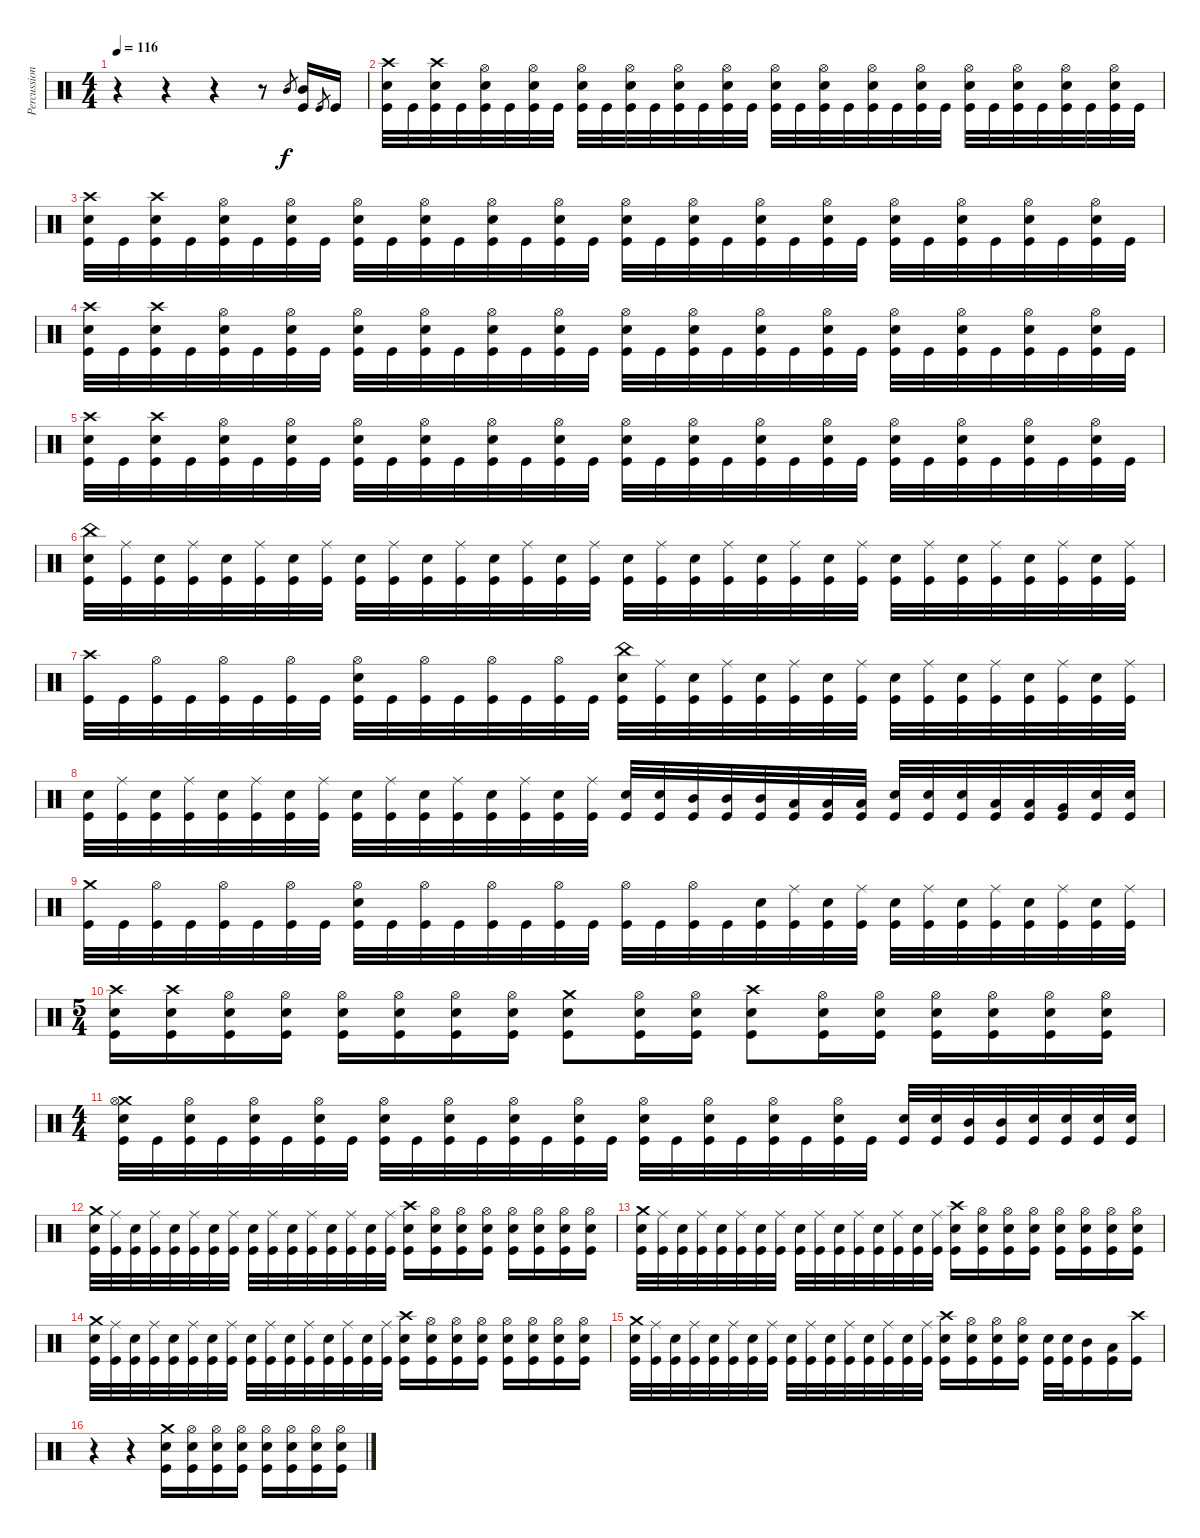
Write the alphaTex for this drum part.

\track ("Percussion" "Percussion") {instrument percussion}
\staff {score}
\articulation defaults
\ts (4 4)
\tempo 116
\clef neutral
\ks c
r.4{dy f} r.4 r.4 r.8 "Mid Tom (hit)".8{gr} ("Mid Tom (hit)" "Kick (hit)").16 "Kick (hit)".8{gr} "Kick (hit)".16 |
("Crash high (hit)" "Electric Snare (hit)" "Kick (hit)").32 "Kick (hit)".32 ("Crash high (hit)" "Electric Snare (hit)" "Kick (hit)").32 "Kick (hit)".32 ("Hi-Hat (open)" "Electric Snare (hit)" "Kick (hit)").32 "Kick (hit)".32 ("Hi-Hat (open)" "Electric Snare (hit)" "Kick (hit)").32 "Kick (hit)".32 ("Hi-Hat (open)" "Electric Snare (hit)" "Kick (hit)").32 "Kick (hit)".32 ("Hi-Hat (open)" "Electric Snare (hit)" "Kick (hit)").32 "Kick (hit)".32 ("Hi-Hat (open)" "Electric Snare (hit)" "Kick (hit)").32 "Kick (hit)".32 ("Hi-Hat (open)" "Electric Snare (hit)" "Kick (hit)").32 "Kick (hit)".32 ("Hi-Hat (open)" "Electric Snare (hit)" "Kick (hit)").32 "Kick (hit)".32 ("Hi-Hat (open)" "Electric Snare (hit)" "Kick (hit)").32 "Kick (hit)".32 ("Hi-Hat (open)" "Electric Snare (hit)" "Kick (hit)").32 "Kick (hit)".32 ("Hi-Hat (open)" "Electric Snare (hit)" "Kick (hit)").32 "Kick (hit)".32 ("Hi-Hat (open)" "Electric Snare (hit)" "Kick (hit)").32 "Kick (hit)".32 ("Hi-Hat (open)" "Electric Snare (hit)" "Kick (hit)").32 "Kick (hit)".32 ("Hi-Hat (open)" "Electric Snare (hit)" "Kick (hit)").32 "Kick (hit)".32 ("Hi-Hat (open)" "Electric Snare (hit)" "Kick (hit)").32 "Kick (hit)".32 |
("Crash high (hit)" "Electric Snare (hit)" "Kick (hit)").32 "Kick (hit)".32 ("Crash high (hit)" "Electric Snare (hit)" "Kick (hit)").32 "Kick (hit)".32 ("Hi-Hat (open)" "Electric Snare (hit)" "Kick (hit)").32 "Kick (hit)".32 ("Hi-Hat (open)" "Electric Snare (hit)" "Kick (hit)").32 "Kick (hit)".32 ("Hi-Hat (open)" "Electric Snare (hit)" "Kick (hit)").32 "Kick (hit)".32 ("Hi-Hat (open)" "Electric Snare (hit)" "Kick (hit)").32 "Kick (hit)".32 ("Hi-Hat (open)" "Electric Snare (hit)" "Kick (hit)").32 "Kick (hit)".32 ("Hi-Hat (open)" "Electric Snare (hit)" "Kick (hit)").32 "Kick (hit)".32 ("Hi-Hat (open)" "Electric Snare (hit)" "Kick (hit)").32 "Kick (hit)".32 ("Hi-Hat (open)" "Electric Snare (hit)" "Kick (hit)").32 "Kick (hit)".32 ("Hi-Hat (open)" "Electric Snare (hit)" "Kick (hit)").32 "Kick (hit)".32 ("Hi-Hat (open)" "Electric Snare (hit)" "Kick (hit)").32 "Kick (hit)".32 ("Hi-Hat (open)" "Electric Snare (hit)" "Kick (hit)").32 "Kick (hit)".32 ("Hi-Hat (open)" "Electric Snare (hit)" "Kick (hit)").32 "Kick (hit)".32 ("Hi-Hat (open)" "Electric Snare (hit)" "Kick (hit)").32 "Kick (hit)".32 ("Hi-Hat (open)" "Electric Snare (hit)" "Kick (hit)").32 "Kick (hit)".32 |
("Crash high (hit)" "Electric Snare (hit)" "Kick (hit)").32 "Kick (hit)".32 ("Crash high (hit)" "Electric Snare (hit)" "Kick (hit)").32 "Kick (hit)".32 ("Hi-Hat (open)" "Electric Snare (hit)" "Kick (hit)").32 "Kick (hit)".32 ("Hi-Hat (open)" "Electric Snare (hit)" "Kick (hit)").32 "Kick (hit)".32 ("Hi-Hat (open)" "Electric Snare (hit)" "Kick (hit)").32 "Kick (hit)".32 ("Hi-Hat (open)" "Electric Snare (hit)" "Kick (hit)").32 "Kick (hit)".32 ("Hi-Hat (open)" "Electric Snare (hit)" "Kick (hit)").32 "Kick (hit)".32 ("Hi-Hat (open)" "Electric Snare (hit)" "Kick (hit)").32 "Kick (hit)".32 ("Hi-Hat (open)" "Electric Snare (hit)" "Kick (hit)").32 "Kick (hit)".32 ("Hi-Hat (open)" "Electric Snare (hit)" "Kick (hit)").32 "Kick (hit)".32 ("Hi-Hat (open)" "Electric Snare (hit)" "Kick (hit)").32 "Kick (hit)".32 ("Hi-Hat (open)" "Electric Snare (hit)" "Kick (hit)").32 "Kick (hit)".32 ("Hi-Hat (open)" "Electric Snare (hit)" "Kick (hit)").32 "Kick (hit)".32 ("Hi-Hat (open)" "Electric Snare (hit)" "Kick (hit)").32 "Kick (hit)".32 ("Hi-Hat (open)" "Electric Snare (hit)" "Kick (hit)").32 "Kick (hit)".32 ("Hi-Hat (open)" "Electric Snare (hit)" "Kick (hit)").32 "Kick (hit)".32 |
("Crash high (hit)" "Electric Snare (hit)" "Kick (hit)").32 "Kick (hit)".32 ("Crash high (hit)" "Electric Snare (hit)" "Kick (hit)").32 "Kick (hit)".32 ("Hi-Hat (open)" "Electric Snare (hit)" "Kick (hit)").32 "Kick (hit)".32 ("Hi-Hat (open)" "Electric Snare (hit)" "Kick (hit)").32 "Kick (hit)".32 ("Hi-Hat (open)" "Electric Snare (hit)" "Kick (hit)").32 "Kick (hit)".32 ("Hi-Hat (open)" "Electric Snare (hit)" "Kick (hit)").32 "Kick (hit)".32 ("Hi-Hat (open)" "Electric Snare (hit)" "Kick (hit)").32 "Kick (hit)".32 ("Hi-Hat (open)" "Electric Snare (hit)" "Kick (hit)").32 "Kick (hit)".32 ("Hi-Hat (open)" "Electric Snare (hit)" "Kick (hit)").32 "Kick (hit)".32 ("Hi-Hat (open)" "Electric Snare (hit)" "Kick (hit)").32 "Kick (hit)".32 ("Hi-Hat (open)" "Electric Snare (hit)" "Kick (hit)").32 "Kick (hit)".32 ("Hi-Hat (open)" "Electric Snare (hit)" "Kick (hit)").32 "Kick (hit)".32 ("Hi-Hat (open)" "Electric Snare (hit)" "Kick (hit)").32 "Kick (hit)".32 ("Hi-Hat (open)" "Electric Snare (hit)" "Kick (hit)").32 "Kick (hit)".32 ("Hi-Hat (open)" "Electric Snare (hit)" "Kick (hit)").32 "Kick (hit)".32 ("Hi-Hat (open)" "Electric Snare (hit)" "Kick (hit)").32 "Kick (hit)".32 |
("China (hit)" "Electric Snare (hit)" "Kick (hit)").32 ("Ride (middle)" "Kick (hit)").32 ("Electric Snare (hit)" "Kick (hit)").32 ("Ride (middle)" "Kick (hit)").32 ("Electric Snare (hit)" "Kick (hit)").32 ("Ride (middle)" "Kick (hit)").32 ("Electric Snare (hit)" "Kick (hit)").32 ("Ride (middle)" "Kick (hit)").32 ("Electric Snare (hit)" "Kick (hit)").32 ("Ride (middle)" "Kick (hit)").32 ("Electric Snare (hit)" "Kick (hit)").32 ("Ride (middle)" "Kick (hit)").32 ("Electric Snare (hit)" "Kick (hit)").32 ("Ride (middle)" "Kick (hit)").32 ("Electric Snare (hit)" "Kick (hit)").32 ("Ride (middle)" "Kick (hit)").32 ("Electric Snare (hit)" "Kick (hit)").32 ("Ride (middle)" "Kick (hit)").32 ("Electric Snare (hit)" "Kick (hit)").32 ("Ride (middle)" "Kick (hit)").32 ("Electric Snare (hit)" "Kick (hit)").32 ("Ride (middle)" "Kick (hit)").32 ("Electric Snare (hit)" "Kick (hit)").32 ("Ride (middle)" "Kick (hit)").32 ("Electric Snare (hit)" "Kick (hit)").32 ("Ride (middle)" "Kick (hit)").32 ("Electric Snare (hit)" "Kick (hit)").32 ("Ride (middle)" "Kick (hit)").32 ("Electric Snare (hit)" "Kick (hit)").32 ("Ride (middle)" "Kick (hit)").32 ("Electric Snare (hit)" "Kick (hit)").32 ("Ride (middle)" "Kick (hit)").32 |
("Crash high (hit)" "Kick (hit)").32 "Kick (hit)".32 ("Hi-Hat (open)" "Kick (hit)").32 "Kick (hit)".32 ("Hi-Hat (open)" "Kick (hit)").32 "Kick (hit)".32 ("Hi-Hat (open)" "Kick (hit)").32 "Kick (hit)".32 ("Hi-Hat (open)" "Electric Snare (hit)" "Kick (hit)").32 "Kick (hit)".32 ("Hi-Hat (open)" "Kick (hit)").32 "Kick (hit)".32 ("Hi-Hat (open)" "Kick (hit)").32 "Kick (hit)".32 ("Hi-Hat (open)" "Kick (hit)").32 "Kick (hit)".32 ("China (hit)" "Electric Snare (hit)" "Kick (hit)").32 ("Ride (middle)" "Kick (hit)").32 ("Electric Snare (hit)" "Kick (hit)").32 ("Ride (middle)" "Kick (hit)").32 ("Electric Snare (hit)" "Kick (hit)").32 ("Ride (middle)" "Kick (hit)").32 ("Electric Snare (hit)" "Kick (hit)").32 ("Ride (middle)" "Kick (hit)").32 ("Electric Snare (hit)" "Kick (hit)").32 ("Ride (middle)" "Kick (hit)").32 ("Electric Snare (hit)" "Kick (hit)").32 ("Ride (middle)" "Kick (hit)").32 ("Electric Snare (hit)" "Kick (hit)").32 ("Ride (middle)" "Kick (hit)").32 ("Electric Snare (hit)" "Kick (hit)").32 ("Ride (middle)" "Kick (hit)").32 |
("Electric Snare (hit)" "Kick (hit)").32 ("Ride (middle)" "Kick (hit)").32 ("Electric Snare (hit)" "Kick (hit)").32 ("Ride (middle)" "Kick (hit)").32 ("Electric Snare (hit)" "Kick (hit)").32 ("Ride (middle)" "Kick (hit)").32 ("Electric Snare (hit)" "Kick (hit)").32 ("Ride (middle)" "Kick (hit)").32 ("Electric Snare (hit)" "Kick (hit)").32 ("Ride (middle)" "Kick (hit)").32 ("Electric Snare (hit)" "Kick (hit)").32 ("Ride (middle)" "Kick (hit)").32 ("Electric Snare (hit)" "Kick (hit)").32 ("Ride (middle)" "Kick (hit)").32 ("Electric Snare (hit)" "Kick (hit)").32 ("Ride (middle)" "Kick (hit)").32 ("Electric Snare (hit)" "Kick (hit)").32 ("Electric Snare (hit)" "Kick (hit)").32 ("Mid Tom (hit)" "Kick (hit)").32 ("Mid Tom (hit)" "Kick (hit)").32 ("Mid Tom (hit)" "Kick (hit)").32 ("Low Tom (hit)" "Kick (hit)").32 ("Low Tom (hit)" "Kick (hit)").32 ("Low Tom (hit)" "Kick (hit)").32 ("Electric Snare (hit)" "Kick (hit)").32 ("Electric Snare (hit)" "Kick (hit)").32 ("Electric Snare (hit)" "Kick (hit)").32 ("Low Tom (hit)" "Kick (hit)").32 ("Low Tom (hit)" "Kick (hit)").32 ("Very Low Tom (hit)" "Kick (hit)").32 ("Electric Snare (hit)" "Kick (hit)").32 ("Electric Snare (hit)" "Kick (hit)").32 |
("Crash medium (hit)" "Kick (hit)").32 "Kick (hit)".32 ("Hi-Hat (open)" "Kick (hit)").32 "Kick (hit)".32 ("Hi-Hat (open)" "Kick (hit)").32 "Kick (hit)".32 ("Hi-Hat (open)" "Kick (hit)").32 "Kick (hit)".32 ("Hi-Hat (open)" "Electric Snare (hit)" "Kick (hit)").32 "Kick (hit)".32 ("Hi-Hat (open)" "Kick (hit)").32 "Kick (hit)".32 ("Hi-Hat (open)" "Kick (hit)").32 "Kick (hit)".32 ("Hi-Hat (open)" "Kick (hit)").32 "Kick (hit)".32 ("Hi-Hat (open)" "Kick (hit)").32 "Kick (hit)".32 ("Hi-Hat (open)" "Kick (hit)").32 "Kick (hit)".32 ("Electric Snare (hit)" "Kick (hit)").32 ("Ride (middle)" "Kick (hit)").32 ("Electric Snare (hit)" "Kick (hit)").32 ("Ride (middle)" "Kick (hit)").32 ("Electric Snare (hit)" "Kick (hit)").32 ("Ride (middle)" "Kick (hit)").32 ("Electric Snare (hit)" "Kick (hit)").32 ("Ride (middle)" "Kick (hit)").32 ("Electric Snare (hit)" "Kick (hit)").32 ("Ride (middle)" "Kick (hit)").32 ("Electric Snare (hit)" "Kick (hit)").32 ("Ride (middle)" "Kick (hit)").32 |
\ts (5 4)
("Crash high (hit)" "Electric Snare (hit)" "Kick (hit)").16 ("Crash high (hit)" "Electric Snare (hit)" "Kick (hit)").16 ("Hi-Hat (open)" "Electric Snare (hit)" "Kick (hit)").16 ("Hi-Hat (open)" "Electric Snare (hit)" "Kick (hit)").16 ("Hi-Hat (open)" "Electric Snare (hit)" "Kick (hit)").16 ("Hi-Hat (open)" "Electric Snare (hit)" "Kick (hit)").16 ("Hi-Hat (open)" "Electric Snare (hit)" "Kick (hit)").16 ("Hi-Hat (open)" "Electric Snare (hit)" "Kick (hit)").16 ("Crash medium (hit)" "Electric Snare (hit)" "Kick (hit)").8 ("Hi-Hat (open)" "Electric Snare (hit)" "Kick (hit)").16 ("Hi-Hat (open)" "Electric Snare (hit)" "Kick (hit)").16 ("Crash high (hit)" "Electric Snare (hit)" "Kick (hit)").8 ("Hi-Hat (open)" "Electric Snare (hit)" "Kick (hit)").16 ("Hi-Hat (open)" "Electric Snare (hit)" "Kick (hit)").16 ("Hi-Hat (open)" "Electric Snare (hit)" "Kick (hit)").16 ("Hi-Hat (open)" "Electric Snare (hit)" "Kick (hit)").16 ("Hi-Hat (open)" "Electric Snare (hit)" "Kick (hit)").16 ("Hi-Hat (open)" "Electric Snare (hit)" "Kick (hit)").16 |
\ts (4 4)
("Crash medium (hit)" "Hi-Hat (open)" "Electric Snare (hit)" "Kick (hit)").32 "Kick (hit)".32 ("Hi-Hat (open)" "Electric Snare (hit)" "Kick (hit)").32 "Kick (hit)".32 ("Hi-Hat (open)" "Electric Snare (hit)" "Kick (hit)").32 "Kick (hit)".32 ("Hi-Hat (open)" "Electric Snare (hit)" "Kick (hit)").32 "Kick (hit)".32 ("Hi-Hat (open)" "Electric Snare (hit)" "Kick (hit)").32 "Kick (hit)".32 ("Hi-Hat (open)" "Electric Snare (hit)" "Kick (hit)").32 "Kick (hit)".32 ("Hi-Hat (open)" "Electric Snare (hit)" "Kick (hit)").32 "Kick (hit)".32 ("Hi-Hat (open)" "Electric Snare (hit)" "Kick (hit)").32 "Kick (hit)".32 ("Hi-Hat (open)" "Electric Snare (hit)" "Kick (hit)").32 "Kick (hit)".32 ("Hi-Hat (open)" "Electric Snare (hit)" "Kick (hit)").32 "Kick (hit)".32 ("Hi-Hat (open)" "Electric Snare (hit)" "Kick (hit)").32 "Kick (hit)".32 ("Hi-Hat (open)" "Electric Snare (hit)" "Kick (hit)").32 "Kick (hit)".32 ("Electric Snare (hit)" "Kick (hit)").32 ("Electric Snare (hit)" "Kick (hit)").32 ("Mid Tom (hit)" "Kick (hit)").32 ("Mid Tom (hit)" "Kick (hit)").32 ("Electric Snare (hit)" "Kick (hit)").32 ("Electric Snare (hit)" "Kick (hit)").32 ("Electric Snare (hit)" "Kick (hit)").32 ("Electric Snare (hit)" "Kick (hit)").32 |
("Crash medium (hit)" "Electric Snare (hit)" "Kick (hit)").32 ("Ride (middle)" "Kick (hit)").32 ("Electric Snare (hit)" "Kick (hit)").32 ("Ride (middle)" "Kick (hit)").32 ("Electric Snare (hit)" "Kick (hit)").32 ("Ride (middle)" "Kick (hit)").32 ("Electric Snare (hit)" "Kick (hit)").32 ("Ride (middle)" "Kick (hit)").32 ("Electric Snare (hit)" "Kick (hit)").32 ("Ride (middle)" "Kick (hit)").32 ("Electric Snare (hit)" "Kick (hit)").32 ("Ride (middle)" "Kick (hit)").32 ("Electric Snare (hit)" "Kick (hit)").32 ("Ride (middle)" "Kick (hit)").32 ("Electric Snare (hit)" "Kick (hit)").32 ("Ride (middle)" "Kick (hit)").32 ("Crash high (hit)" "Electric Snare (hit)" "Kick (hit)").16 ("Hi-Hat (open)" "Electric Snare (hit)" "Kick (hit)").16 ("Hi-Hat (open)" "Electric Snare (hit)" "Kick (hit)").16 ("Hi-Hat (open)" "Electric Snare (hit)" "Kick (hit)").16 ("Hi-Hat (open)" "Electric Snare (hit)" "Kick (hit)").16 ("Hi-Hat (open)" "Electric Snare (hit)" "Kick (hit)").16 ("Hi-Hat (open)" "Electric Snare (hit)" "Kick (hit)").16 ("Hi-Hat (open)" "Electric Snare (hit)" "Kick (hit)").16 |
("Crash medium (hit)" "Electric Snare (hit)" "Kick (hit)").32 ("Ride (middle)" "Kick (hit)").32 ("Electric Snare (hit)" "Kick (hit)").32 ("Ride (middle)" "Kick (hit)").32 ("Electric Snare (hit)" "Kick (hit)").32 ("Ride (middle)" "Kick (hit)").32 ("Electric Snare (hit)" "Kick (hit)").32 ("Ride (middle)" "Kick (hit)").32 ("Electric Snare (hit)" "Kick (hit)").32 ("Ride (middle)" "Kick (hit)").32 ("Electric Snare (hit)" "Kick (hit)").32 ("Ride (middle)" "Kick (hit)").32 ("Electric Snare (hit)" "Kick (hit)").32 ("Ride (middle)" "Kick (hit)").32 ("Electric Snare (hit)" "Kick (hit)").32 ("Ride (middle)" "Kick (hit)").32 ("Crash high (hit)" "Electric Snare (hit)" "Kick (hit)").16 ("Hi-Hat (open)" "Electric Snare (hit)" "Kick (hit)").16 ("Hi-Hat (open)" "Electric Snare (hit)" "Kick (hit)").16 ("Hi-Hat (open)" "Electric Snare (hit)" "Kick (hit)").16 ("Hi-Hat (open)" "Electric Snare (hit)" "Kick (hit)").16 ("Hi-Hat (open)" "Electric Snare (hit)" "Kick (hit)").16 ("Hi-Hat (open)" "Electric Snare (hit)" "Kick (hit)").16 ("Hi-Hat (open)" "Electric Snare (hit)" "Kick (hit)").16 |
("Crash medium (hit)" "Electric Snare (hit)" "Kick (hit)").32 ("Ride (middle)" "Kick (hit)").32 ("Electric Snare (hit)" "Kick (hit)").32 ("Ride (middle)" "Kick (hit)").32 ("Electric Snare (hit)" "Kick (hit)").32 ("Ride (middle)" "Kick (hit)").32 ("Electric Snare (hit)" "Kick (hit)").32 ("Ride (middle)" "Kick (hit)").32 ("Electric Snare (hit)" "Kick (hit)").32 ("Ride (middle)" "Kick (hit)").32 ("Electric Snare (hit)" "Kick (hit)").32 ("Ride (middle)" "Kick (hit)").32 ("Electric Snare (hit)" "Kick (hit)").32 ("Ride (middle)" "Kick (hit)").32 ("Electric Snare (hit)" "Kick (hit)").32 ("Ride (middle)" "Kick (hit)").32 ("Crash high (hit)" "Electric Snare (hit)" "Kick (hit)").16 ("Hi-Hat (open)" "Electric Snare (hit)" "Kick (hit)").16 ("Hi-Hat (open)" "Electric Snare (hit)" "Kick (hit)").16 ("Hi-Hat (open)" "Electric Snare (hit)" "Kick (hit)").16 ("Hi-Hat (open)" "Electric Snare (hit)" "Kick (hit)").16 ("Hi-Hat (open)" "Electric Snare (hit)" "Kick (hit)").16 ("Hi-Hat (open)" "Electric Snare (hit)" "Kick (hit)").16 ("Hi-Hat (open)" "Electric Snare (hit)" "Kick (hit)").16 |
("Crash medium (hit)" "Electric Snare (hit)" "Kick (hit)").32 ("Ride (middle)" "Kick (hit)").32 ("Electric Snare (hit)" "Kick (hit)").32 ("Ride (middle)" "Kick (hit)").32 ("Electric Snare (hit)" "Kick (hit)").32 ("Ride (middle)" "Kick (hit)").32 ("Electric Snare (hit)" "Kick (hit)").32 ("Ride (middle)" "Kick (hit)").32 ("Electric Snare (hit)" "Kick (hit)").32 ("Ride (middle)" "Kick (hit)").32 ("Electric Snare (hit)" "Kick (hit)").32 ("Ride (middle)" "Kick (hit)").32 ("Electric Snare (hit)" "Kick (hit)").32 ("Ride (middle)" "Kick (hit)").32 ("Electric Snare (hit)" "Kick (hit)").32 ("Ride (middle)" "Kick (hit)").32 ("Crash high (hit)" "Electric Snare (hit)" "Kick (hit)").16 ("Hi-Hat (open)" "Electric Snare (hit)" "Kick (hit)").16 ("Hi-Hat (open)" "Electric Snare (hit)" "Kick (hit)").16 ("Hi-Hat (open)" "Electric Snare (hit)" "Kick (hit)").16 ("Electric Snare (hit)" "Kick (hit)").32 ("Electric Snare (hit)" "Kick (hit)").32 ("Mid Tom (hit)" "Kick (hit)").16 ("Low Tom (hit)" "Kick (hit)").16 ("Crash high (hit)" "Kick (hit)").16 |
r.4 r.4 ("Crash medium (hit)" "Electric Snare (hit)" "Kick (hit)").16 ("Hi-Hat (open)" "Electric Snare (hit)" "Kick (hit)").16 ("Hi-Hat (open)" "Electric Snare (hit)" "Kick (hit)").16 ("Hi-Hat (open)" "Electric Snare (hit)" "Kick (hit)").16 ("Hi-Hat (open)" "Electric Snare (hit)" "Kick (hit)").16 ("Hi-Hat (open)" "Electric Snare (hit)" "Kick (hit)").16 ("Hi-Hat (open)" "Electric Snare (hit)" "Kick (hit)").16 ("Hi-Hat (open)" "Electric Snare (hit)" "Kick (hit)").16
